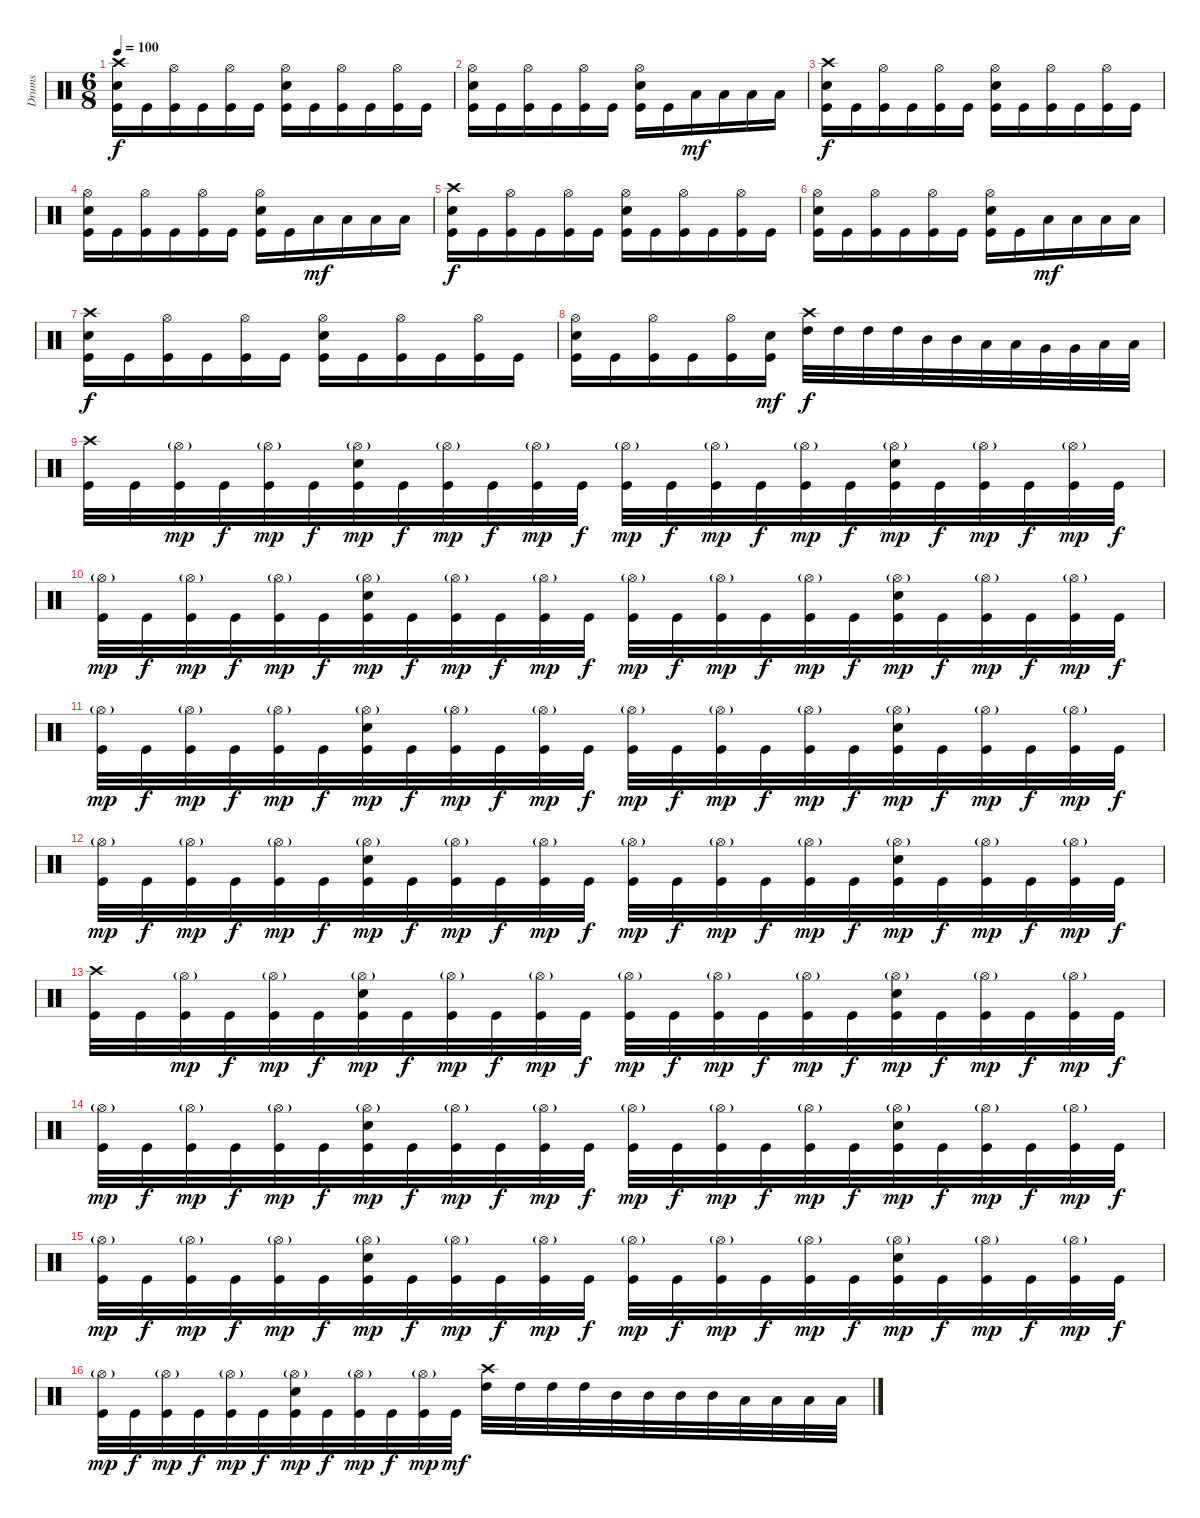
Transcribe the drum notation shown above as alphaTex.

\track ("Drums" "Drums") {instrument percussion}
\staff {score}
\articulation defaults
\ts (6 8)
\tempo 100
\clef neutral
\ks c
("Crash high (hit)" "Electric Snare (hit)" "Kick (hit)").16{dy f} "Kick (hit)".16 ("Hi-Hat (open)" "Kick (hit)").16 "Kick (hit)".16 ("Hi-Hat (open)" "Kick (hit)").16 "Kick (hit)".16 ("Hi-Hat (open)" "Electric Snare (hit)" "Kick (hit)").16 "Kick (hit)".16 ("Hi-Hat (open)" "Kick (hit)").16 "Kick (hit)".16 ("Hi-Hat (open)" "Kick (hit)").16 "Kick (hit)".16 |
("Hi-Hat (open)" "Electric Snare (hit)" "Kick (hit)").16 "Kick (hit)".16 ("Hi-Hat (open)" "Kick (hit)").16 "Kick (hit)".16 ("Hi-Hat (open)" "Kick (hit)").16 "Kick (hit)".16 ("Hi-Hat (open)" "Electric Snare (hit)" "Kick (hit)").16 "Kick (hit)".16 "Low Floor Tom (hit)".16{dy mf} "Low Floor Tom (hit)".16 "Low Floor Tom (hit)".16 "Low Floor Tom (hit)".16 |
("Crash high (hit)" "Electric Snare (hit)" "Kick (hit)").16{dy f} "Kick (hit)".16 ("Hi-Hat (open)" "Kick (hit)").16 "Kick (hit)".16 ("Hi-Hat (open)" "Kick (hit)").16 "Kick (hit)".16 ("Hi-Hat (open)" "Electric Snare (hit)" "Kick (hit)").16 "Kick (hit)".16 ("Hi-Hat (open)" "Kick (hit)").16 "Kick (hit)".16 ("Hi-Hat (open)" "Kick (hit)").16 "Kick (hit)".16 |
("Hi-Hat (open)" "Electric Snare (hit)" "Kick (hit)").16 "Kick (hit)".16 ("Hi-Hat (open)" "Kick (hit)").16 "Kick (hit)".16 ("Hi-Hat (open)" "Kick (hit)").16 "Kick (hit)".16 ("Hi-Hat (open)" "Electric Snare (hit)" "Kick (hit)").16 "Kick (hit)".16 "Low Floor Tom (hit)".16{dy mf} "Low Floor Tom (hit)".16 "Low Floor Tom (hit)".16 "Low Floor Tom (hit)".16 |
("Crash high (hit)" "Electric Snare (hit)" "Kick (hit)").16{dy f} "Kick (hit)".16 ("Hi-Hat (open)" "Kick (hit)").16 "Kick (hit)".16 ("Hi-Hat (open)" "Kick (hit)").16 "Kick (hit)".16 ("Hi-Hat (open)" "Electric Snare (hit)" "Kick (hit)").16 "Kick (hit)".16 ("Hi-Hat (open)" "Kick (hit)").16 "Kick (hit)".16 ("Hi-Hat (open)" "Kick (hit)").16 "Kick (hit)".16 |
("Hi-Hat (open)" "Electric Snare (hit)" "Kick (hit)").16 "Kick (hit)".16 ("Hi-Hat (open)" "Kick (hit)").16 "Kick (hit)".16 ("Hi-Hat (open)" "Kick (hit)").16 "Kick (hit)".16 ("Hi-Hat (open)" "Electric Snare (hit)" "Kick (hit)").16 "Kick (hit)".16 "Low Floor Tom (hit)".16{dy mf} "Low Floor Tom (hit)".16 "Low Floor Tom (hit)".16 "Low Floor Tom (hit)".16 |
("Crash high (hit)" "Electric Snare (hit)" "Kick (hit)").16{dy f} "Kick (hit)".16 ("Hi-Hat (open)" "Kick (hit)").16 "Kick (hit)".16 ("Hi-Hat (open)" "Kick (hit)").16 "Kick (hit)".16 ("Hi-Hat (open)" "Electric Snare (hit)" "Kick (hit)").16 "Kick (hit)".16 ("Hi-Hat (open)" "Kick (hit)").16 "Kick (hit)".16 ("Hi-Hat (open)" "Kick (hit)").16 "Kick (hit)".16 |
("Hi-Hat (open)" "Electric Snare (hit)" "Kick (hit)").16 "Kick (hit)".16 ("Hi-Hat (open)" "Kick (hit)").16 "Kick (hit)".16 ("Hi-Hat (open)" "Kick (hit)").16 ("Electric Snare (hit)" "Kick (hit)").16{dy mf} ("Crash high (hit)" "High Tom (hit)").32{dy f} "High Tom (hit)".32 "High Tom (hit)".32 "High Tom (hit)".32 "Mid Tom (hit)".32 "Mid Tom (hit)".32 "Low Tom (hit)".32 "Low Tom (hit)".32 "Very Low Tom (hit)".32 "Very Low Tom (hit)".32 "Low Floor Tom (hit)".32 "Low Floor Tom (hit)".32 |
("Crash high (hit)" "Kick (hit)").32 "Kick (hit)".32 ("Hi-Hat (open)"{g} "Kick (hit)").32{dy mp} "Kick (hit)".32{dy f} ("Hi-Hat (open)"{g} "Kick (hit)").32{dy mp} "Kick (hit)".32{dy f} ("Hi-Hat (open)"{g} "Electric Snare (hit)" "Kick (hit)").32{dy mp} "Kick (hit)".32{dy f} ("Hi-Hat (open)"{g} "Kick (hit)").32{dy mp} "Kick (hit)".32{dy f} ("Hi-Hat (open)"{g} "Kick (hit)").32{dy mp} "Kick (hit)".32{dy f} ("Hi-Hat (open)"{g} "Kick (hit)").32{dy mp} "Kick (hit)".32{dy f} ("Hi-Hat (open)"{g} "Kick (hit)").32{dy mp} "Kick (hit)".32{dy f} ("Hi-Hat (open)"{g} "Kick (hit)").32{dy mp} "Kick (hit)".32{dy f} ("Hi-Hat (open)"{g} "Electric Snare (hit)" "Kick (hit)").32{dy mp} "Kick (hit)".32{dy f} ("Hi-Hat (open)"{g} "Kick (hit)").32{dy mp} "Kick (hit)".32{dy f} ("Hi-Hat (open)"{g} "Kick (hit)").32{dy mp} "Kick (hit)".32{dy f} |
("Hi-Hat (open)"{g} "Kick (hit)").32{dy mp} "Kick (hit)".32{dy f} ("Hi-Hat (open)"{g} "Kick (hit)").32{dy mp} "Kick (hit)".32{dy f} ("Hi-Hat (open)"{g} "Kick (hit)").32{dy mp} "Kick (hit)".32{dy f} ("Hi-Hat (open)"{g} "Electric Snare (hit)" "Kick (hit)").32{dy mp} "Kick (hit)".32{dy f} ("Hi-Hat (open)"{g} "Kick (hit)").32{dy mp} "Kick (hit)".32{dy f} ("Hi-Hat (open)"{g} "Kick (hit)").32{dy mp} "Kick (hit)".32{dy f} ("Hi-Hat (open)"{g} "Kick (hit)").32{dy mp} "Kick (hit)".32{dy f} ("Hi-Hat (open)"{g} "Kick (hit)").32{dy mp} "Kick (hit)".32{dy f} ("Hi-Hat (open)"{g} "Kick (hit)").32{dy mp} "Kick (hit)".32{dy f} ("Hi-Hat (open)"{g} "Electric Snare (hit)" "Kick (hit)").32{dy mp} "Kick (hit)".32{dy f} ("Hi-Hat (open)"{g} "Kick (hit)").32{dy mp} "Kick (hit)".32{dy f} ("Hi-Hat (open)"{g} "Kick (hit)").32{dy mp} "Kick (hit)".32{dy f} |
("Hi-Hat (open)"{g} "Kick (hit)").32{dy mp} "Kick (hit)".32{dy f} ("Hi-Hat (open)"{g} "Kick (hit)").32{dy mp} "Kick (hit)".32{dy f} ("Hi-Hat (open)"{g} "Kick (hit)").32{dy mp} "Kick (hit)".32{dy f} ("Hi-Hat (open)"{g} "Electric Snare (hit)" "Kick (hit)").32{dy mp} "Kick (hit)".32{dy f} ("Hi-Hat (open)"{g} "Kick (hit)").32{dy mp} "Kick (hit)".32{dy f} ("Hi-Hat (open)"{g} "Kick (hit)").32{dy mp} "Kick (hit)".32{dy f} ("Hi-Hat (open)"{g} "Kick (hit)").32{dy mp} "Kick (hit)".32{dy f} ("Hi-Hat (open)"{g} "Kick (hit)").32{dy mp} "Kick (hit)".32{dy f} ("Hi-Hat (open)"{g} "Kick (hit)").32{dy mp} "Kick (hit)".32{dy f} ("Hi-Hat (open)"{g} "Electric Snare (hit)" "Kick (hit)").32{dy mp} "Kick (hit)".32{dy f} ("Hi-Hat (open)"{g} "Kick (hit)").32{dy mp} "Kick (hit)".32{dy f} ("Hi-Hat (open)"{g} "Kick (hit)").32{dy mp} "Kick (hit)".32{dy f} |
("Hi-Hat (open)"{g} "Kick (hit)").32{dy mp} "Kick (hit)".32{dy f} ("Hi-Hat (open)"{g} "Kick (hit)").32{dy mp} "Kick (hit)".32{dy f} ("Hi-Hat (open)"{g} "Kick (hit)").32{dy mp} "Kick (hit)".32{dy f} ("Hi-Hat (open)"{g} "Electric Snare (hit)" "Kick (hit)").32{dy mp} "Kick (hit)".32{dy f} ("Hi-Hat (open)"{g} "Kick (hit)").32{dy mp} "Kick (hit)".32{dy f} ("Hi-Hat (open)"{g} "Kick (hit)").32{dy mp} "Kick (hit)".32{dy f} ("Hi-Hat (open)"{g} "Kick (hit)").32{dy mp} "Kick (hit)".32{dy f} ("Hi-Hat (open)"{g} "Kick (hit)").32{dy mp} "Kick (hit)".32{dy f} ("Hi-Hat (open)"{g} "Kick (hit)").32{dy mp} "Kick (hit)".32{dy f} ("Hi-Hat (open)"{g} "Electric Snare (hit)" "Kick (hit)").32{dy mp} "Kick (hit)".32{dy f} ("Hi-Hat (open)"{g} "Kick (hit)").32{dy mp} "Kick (hit)".32{dy f} ("Hi-Hat (open)"{g} "Kick (hit)").32{dy mp} "Kick (hit)".32{dy f} |
("Crash high (hit)" "Kick (hit)").32 "Kick (hit)".32 ("Hi-Hat (open)"{g} "Kick (hit)").32{dy mp} "Kick (hit)".32{dy f} ("Hi-Hat (open)"{g} "Kick (hit)").32{dy mp} "Kick (hit)".32{dy f} ("Hi-Hat (open)"{g} "Electric Snare (hit)" "Kick (hit)").32{dy mp} "Kick (hit)".32{dy f} ("Hi-Hat (open)"{g} "Kick (hit)").32{dy mp} "Kick (hit)".32{dy f} ("Hi-Hat (open)"{g} "Kick (hit)").32{dy mp} "Kick (hit)".32{dy f} ("Hi-Hat (open)"{g} "Kick (hit)").32{dy mp} "Kick (hit)".32{dy f} ("Hi-Hat (open)"{g} "Kick (hit)").32{dy mp} "Kick (hit)".32{dy f} ("Hi-Hat (open)"{g} "Kick (hit)").32{dy mp} "Kick (hit)".32{dy f} ("Hi-Hat (open)"{g} "Electric Snare (hit)" "Kick (hit)").32{dy mp} "Kick (hit)".32{dy f} ("Hi-Hat (open)"{g} "Kick (hit)").32{dy mp} "Kick (hit)".32{dy f} ("Hi-Hat (open)"{g} "Kick (hit)").32{dy mp} "Kick (hit)".32{dy f} |
("Hi-Hat (open)"{g} "Kick (hit)").32{dy mp} "Kick (hit)".32{dy f} ("Hi-Hat (open)"{g} "Kick (hit)").32{dy mp} "Kick (hit)".32{dy f} ("Hi-Hat (open)"{g} "Kick (hit)").32{dy mp} "Kick (hit)".32{dy f} ("Hi-Hat (open)"{g} "Electric Snare (hit)" "Kick (hit)").32{dy mp} "Kick (hit)".32{dy f} ("Hi-Hat (open)"{g} "Kick (hit)").32{dy mp} "Kick (hit)".32{dy f} ("Hi-Hat (open)"{g} "Kick (hit)").32{dy mp} "Kick (hit)".32{dy f} ("Hi-Hat (open)"{g} "Kick (hit)").32{dy mp} "Kick (hit)".32{dy f} ("Hi-Hat (open)"{g} "Kick (hit)").32{dy mp} "Kick (hit)".32{dy f} ("Hi-Hat (open)"{g} "Kick (hit)").32{dy mp} "Kick (hit)".32{dy f} ("Hi-Hat (open)"{g} "Electric Snare (hit)" "Kick (hit)").32{dy mp} "Kick (hit)".32{dy f} ("Hi-Hat (open)"{g} "Kick (hit)").32{dy mp} "Kick (hit)".32{dy f} ("Hi-Hat (open)"{g} "Kick (hit)").32{dy mp} "Kick (hit)".32{dy f} |
("Hi-Hat (open)"{g} "Kick (hit)").32{dy mp} "Kick (hit)".32{dy f} ("Hi-Hat (open)"{g} "Kick (hit)").32{dy mp} "Kick (hit)".32{dy f} ("Hi-Hat (open)"{g} "Kick (hit)").32{dy mp} "Kick (hit)".32{dy f} ("Hi-Hat (open)"{g} "Electric Snare (hit)" "Kick (hit)").32{dy mp} "Kick (hit)".32{dy f} ("Hi-Hat (open)"{g} "Kick (hit)").32{dy mp} "Kick (hit)".32{dy f} ("Hi-Hat (open)"{g} "Kick (hit)").32{dy mp} "Kick (hit)".32{dy f} ("Hi-Hat (open)"{g} "Kick (hit)").32{dy mp} "Kick (hit)".32{dy f} ("Hi-Hat (open)"{g} "Kick (hit)").32{dy mp} "Kick (hit)".32{dy f} ("Hi-Hat (open)"{g} "Kick (hit)").32{dy mp} "Kick (hit)".32{dy f} ("Hi-Hat (open)"{g} "Electric Snare (hit)" "Kick (hit)").32{dy mp} "Kick (hit)".32{dy f} ("Hi-Hat (open)"{g} "Kick (hit)").32{dy mp} "Kick (hit)".32{dy f} ("Hi-Hat (open)"{g} "Kick (hit)").32{dy mp} "Kick (hit)".32{dy f} |
("Hi-Hat (open)"{g} "Kick (hit)").32{dy mp} "Kick (hit)".32{dy f} ("Hi-Hat (open)"{g} "Kick (hit)").32{dy mp} "Kick (hit)".32{dy f} ("Hi-Hat (open)"{g} "Kick (hit)").32{dy mp} "Kick (hit)".32{dy f} ("Hi-Hat (open)"{g} "Electric Snare (hit)" "Kick (hit)").32{dy mp} "Kick (hit)".32{dy f} ("Hi-Hat (open)"{g} "Kick (hit)").32{dy mp} "Kick (hit)".32{dy f} ("Hi-Hat (open)"{g} "Kick (hit)").32{dy mp} "Kick (hit)".32{dy mf} ("Crash high (hit)" "High Tom (hit)").32 "High Tom (hit)".32 "High Tom (hit)".32 "High Tom (hit)".32 "Mid Tom (hit)".32 "Mid Tom (hit)".32 "Mid Tom (hit)".32 "Mid Tom (hit)".32 "Low Tom (hit)".32 "Low Tom (hit)".32 "Low Tom (hit)".32 "Low Tom (hit)".32
